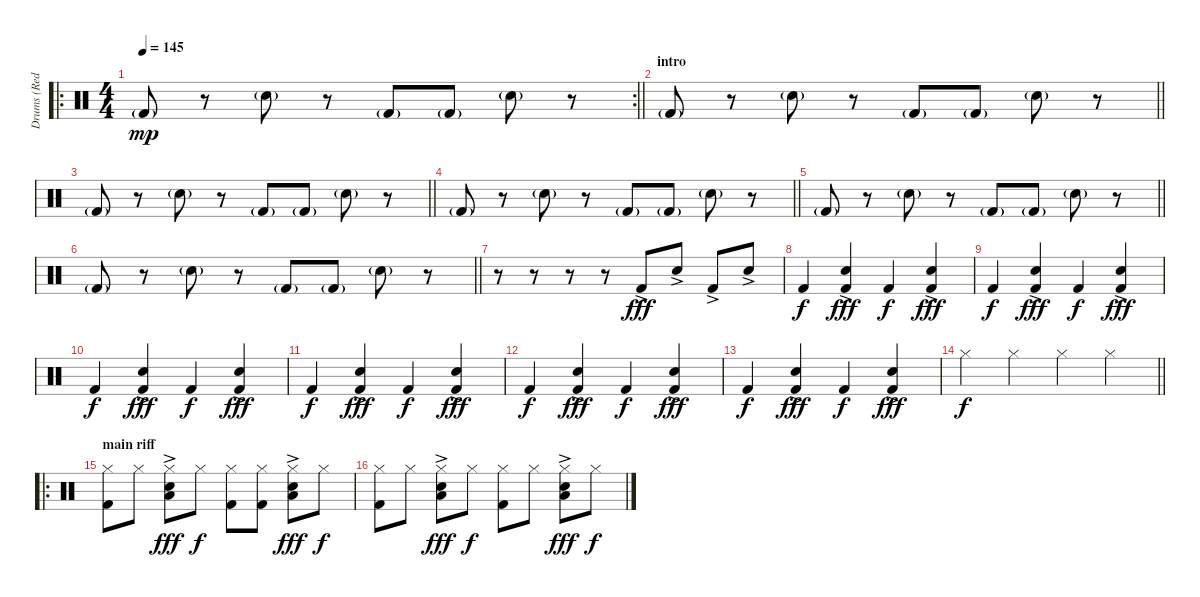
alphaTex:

\track ("Drums (Red)" "Drums (Red") {instrument percussion}
\staff {score}
\articulation defaults
\ro
\rc 2
\ts (4 4)
\tempo 145
\clef neutral
\barLineRight lightlight
\ks c "Kick (hit) 2"{g}.8{dy mp}
r.8 "Electric Snare (hit)"{g}.8 r.8 "Kick (hit) 2"{g}.8 "Kick (hit) 2"{g}.8 "Electric Snare (hit)"{g}.8 r.8 |
\section ("" "intro")
\barLineRight lightlight "Kick (hit) 2"{g}.8
r.8 "Electric Snare (hit)"{g}.8 r.8 "Kick (hit) 2"{g}.8 "Kick (hit) 2"{g}.8 "Electric Snare (hit)"{g}.8 r.8 |
\barLineRight lightlight "Kick (hit) 2"{g}.8
r.8 "Electric Snare (hit)"{g}.8 r.8 "Kick (hit) 2"{g}.8 "Kick (hit) 2"{g}.8 "Electric Snare (hit)"{g}.8 r.8 |
\barLineRight lightlight "Kick (hit) 2"{g}.8
r.8 "Electric Snare (hit)"{g}.8 r.8 "Kick (hit) 2"{g}.8 "Kick (hit) 2"{g}.8 "Electric Snare (hit)"{g}.8 r.8 |
\barLineRight lightlight "Kick (hit) 2"{g}.8
r.8 "Electric Snare (hit)"{g}.8 r.8 "Kick (hit) 2"{g}.8 "Kick (hit) 2"{g}.8 "Electric Snare (hit)"{g}.8 r.8 |
\barLineRight lightlight "Kick (hit) 2"{g}.8
r.8 "Electric Snare (hit)"{g}.8 r.8 "Kick (hit) 2"{g}.8 "Kick (hit) 2"{g}.8 "Electric Snare (hit)"{g}.8 r.8 |
r.8 r.8 r.8 r.8 "Kick (hit) 2"{ac}.8{dy fff} "Electric Snare (hit)"{ac}.8 "Kick (hit) 2"{ac}.8 "Electric Snare (hit)"{ac}.8 |
"Kick (hit) 2".4{dy f} ("Electric Snare (hit)"{ac} "Kick (hit) 2").4{dy fff} "Kick (hit) 2".4{dy f} ("Electric Snare (hit)"{ac} "Kick (hit) 2").4{dy fff} |
"Kick (hit) 2".4{dy f} ("Electric Snare (hit)"{ac} "Kick (hit) 2").4{dy fff} "Kick (hit) 2".4{dy f} ("Electric Snare (hit)"{ac} "Kick (hit) 2").4{dy fff} |
"Kick (hit) 2".4{dy f} ("Electric Snare (hit)"{ac} "Kick (hit) 2").4{dy fff} "Kick (hit) 2".4{dy f} ("Electric Snare (hit)"{ac} "Kick (hit) 2").4{dy fff} |
"Kick (hit) 2".4{dy f} ("Electric Snare (hit)"{ac} "Kick (hit) 2").4{dy fff} "Kick (hit) 2".4{dy f} ("Electric Snare (hit)"{ac} "Kick (hit) 2").4{dy fff} |
"Kick (hit) 2".4{dy f} ("Electric Snare (hit)"{ac} "Kick (hit) 2").4{dy fff} "Kick (hit) 2".4{dy f} ("Electric Snare (hit)"{ac} "Kick (hit) 2").4{dy fff} |
"Kick (hit) 2".4{dy f} ("Electric Snare (hit)"{ac} "Kick (hit) 2").4{dy fff} "Kick (hit) 2".4{dy f} ("Electric Snare (hit)"{ac} "Kick (hit) 2").4{dy fff} |
\barLineRight lightlight "Hi-Hat (closed)".4{dy f} "Hi-Hat (closed)".4 "Hi-Hat (closed)".4 "Hi-Hat (closed)".4
|
\ro
\section ("" "main riff")
("Hi-Hat (closed)" "Kick (hit) 2").8 "Hi-Hat (closed)".8 ("Hi-Hat (closed)" "Low Floor Tom (hit)" "Electric Snare (hit)"{ac}).8{dy fff} "Hi-Hat (closed)".8{dy f} ("Hi-Hat (closed)" "Kick (hit) 2").8 ("Hi-Hat (closed)" "Kick (hit) 2").8 ("Hi-Hat (closed)" "Low Floor Tom (hit)" "Electric Snare (hit)"{ac}).8{dy fff} "Hi-Hat (closed)".8{dy f} |
("Hi-Hat (closed)" "Kick (hit) 2").8 "Hi-Hat (closed)".8 ("Hi-Hat (closed)" "Low Floor Tom (hit)" "Electric Snare (hit)"{ac}).8{dy fff} "Hi-Hat (closed)".8{dy f} ("Hi-Hat (closed)" "Kick (hit) 2").8 "Hi-Hat (closed)".8 ("Hi-Hat (closed)" "Low Floor Tom (hit)" "Electric Snare (hit)"{ac}).8{dy fff} "Hi-Hat (closed)".8{dy f}
